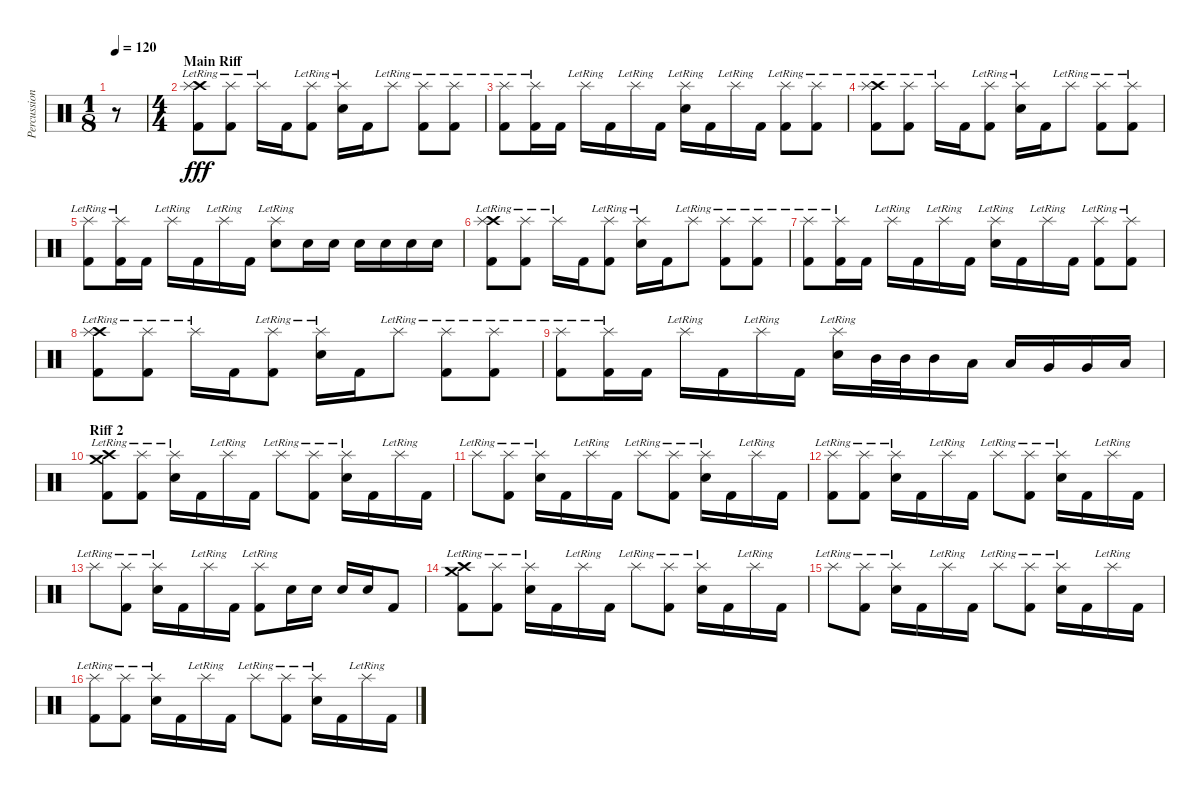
\track ("Percussions" "Percussion") {instrument percussion}
\staff {score}
\articulation defaults
\ts (1 8)
\tempo 120
\clef neutral
\ks c
r.8{dy fff} |
\ts (4 4)
\section ("" "Main Riff")
("Crash high (hit)"{lr} "Splash (hit)"{lr} "Kick (hit) 2").8 ("Splash (hit)"{lr} "Kick (hit) 2").8 "Splash (hit)"{lr}.16 "Kick (hit) 2".16 ("Splash (hit)"{lr} "Kick (hit) 2").8 ("Splash (hit)"{lr} "Electric Snare (hit)").16 "Kick (hit) 2".16 "Splash (hit)"{lr}.8 ("Splash (hit)"{lr} "Kick (hit) 2").8 ("Splash (hit)"{lr} "Kick (hit) 2").8 |
("Splash (hit)"{lr} "Kick (hit) 2").8 ("Splash (hit)"{lr} "Kick (hit) 2").16 "Kick (hit) 2".16 "Splash (hit)"{lr}.16 "Kick (hit) 2".16 "Splash (hit)"{lr}.16 "Kick (hit) 2".16 ("Splash (hit)"{lr} "Electric Snare (hit)").16 "Kick (hit) 2".16 "Splash (hit)"{lr}.16 "Kick (hit) 2".16 ("Splash (hit)"{lr} "Kick (hit) 2").8 ("Splash (hit)"{lr} "Kick (hit) 2").8 |
("Crash high (hit)"{lr} "Splash (hit)"{lr} "Kick (hit) 2").8 ("Splash (hit)"{lr} "Kick (hit) 2").8 "Splash (hit)"{lr}.16 "Kick (hit) 2".16 ("Splash (hit)"{lr} "Kick (hit) 2").8 ("Splash (hit)"{lr} "Electric Snare (hit)").16 "Kick (hit) 2".16 "Splash (hit)"{lr}.8 ("Splash (hit)"{lr} "Kick (hit) 2").8 ("Splash (hit)"{lr} "Kick (hit) 2").8 |
("Splash (hit)"{lr} "Kick (hit) 2").8 ("Splash (hit)"{lr} "Kick (hit) 2").16 "Kick (hit) 2".16 "Splash (hit)"{lr}.16 "Kick (hit) 2".16 "Splash (hit)"{lr}.16 "Kick (hit) 2".16 ("Splash (hit)"{lr} "Electric Snare (hit)").8 "Electric Snare (hit)".16 "Electric Snare (hit)".16 "Electric Snare (hit)".16 "Electric Snare (hit)".16 "Electric Snare (hit)".16 "Electric Snare (hit)".16 |
("Crash high (hit)"{lr} "Splash (hit)"{lr} "Kick (hit) 2").8 ("Splash (hit)"{lr} "Kick (hit) 2").8 "Splash (hit)"{lr}.16 "Kick (hit) 2".16 ("Splash (hit)"{lr} "Kick (hit) 2").8 ("Splash (hit)"{lr} "Electric Snare (hit)").16 "Kick (hit) 2".16 "Splash (hit)"{lr}.8 ("Splash (hit)"{lr} "Kick (hit) 2").8 ("Splash (hit)"{lr} "Kick (hit) 2").8 |
("Splash (hit)"{lr} "Kick (hit) 2").8 ("Splash (hit)"{lr} "Kick (hit) 2").16 "Kick (hit) 2".16 "Splash (hit)"{lr}.16 "Kick (hit) 2".16 "Splash (hit)"{lr}.16 "Kick (hit) 2".16 ("Splash (hit)"{lr} "Electric Snare (hit)").16 "Kick (hit) 2".16 "Splash (hit)"{lr}.16 "Kick (hit) 2".16 ("Splash (hit)"{lr} "Kick (hit) 2").8 ("Splash (hit)"{lr} "Kick (hit) 2").8 |
("Crash high (hit)"{lr} "Splash (hit)"{lr} "Kick (hit) 2").8 ("Splash (hit)"{lr} "Kick (hit) 2").8 "Splash (hit)"{lr}.16 "Kick (hit) 2".16 ("Splash (hit)"{lr} "Kick (hit) 2").8 ("Splash (hit)"{lr} "Electric Snare (hit)").16 "Kick (hit) 2".16 "Splash (hit)"{lr}.8 ("Splash (hit)"{lr} "Kick (hit) 2").8 ("Splash (hit)"{lr} "Kick (hit) 2").8 |
("Splash (hit)"{lr} "Kick (hit) 2").8 ("Splash (hit)"{lr} "Kick (hit) 2").16 "Kick (hit) 2".16 "Splash (hit)"{lr}.16 "Kick (hit) 2".16 "Splash (hit)"{lr}.16 "Kick (hit) 2".16 ("Splash (hit)"{lr} "Electric Snare (hit)").16 "Mid Tom (hit)".32 "Mid Tom (hit)".32 "Mid Tom (hit)".16 "Low Tom (hit)".16 "Low Tom (hit)".16 "Very Low Tom (hit)".16 "Very Low Tom (hit)".16 "Low Floor Tom (hit)".16 |
\section ("" "Riff 2")
("Crash high (hit)"{lr} "Crash medium (hit)"{lr} "Kick (hit) 2").8 ("Splash (hit)"{lr} "Kick (hit) 2").8 ("Splash (hit)"{lr} "Electric Snare (hit)").16 "Kick (hit) 2".16 "Splash (hit)"{lr}.16 "Kick (hit) 2".16 "Splash (hit)"{lr}.8 ("Splash (hit)"{lr} "Kick (hit) 2").8 ("Splash (hit)"{lr} "Electric Snare (hit)").16 "Kick (hit) 2".16 "Splash (hit)"{lr}.16 "Kick (hit) 2".16 |
"Splash (hit)"{lr}.8 ("Splash (hit)"{lr} "Kick (hit) 2").8 ("Splash (hit)"{lr} "Electric Snare (hit)").16 "Kick (hit) 2".16 "Splash (hit)"{lr}.16 "Kick (hit) 2".16 "Splash (hit)"{lr}.8 ("Splash (hit)"{lr} "Kick (hit) 2").8 ("Splash (hit)"{lr} "Electric Snare (hit)").16 "Kick (hit) 2".16 "Splash (hit)"{lr}.16 "Kick (hit) 2".16 |
("Splash (hit)"{lr} "Kick (hit) 2").8 ("Splash (hit)"{lr} "Kick (hit) 2").8 ("Splash (hit)"{lr} "Electric Snare (hit)").16 "Kick (hit) 2".16 "Splash (hit)"{lr}.16 "Kick (hit) 2".16 "Splash (hit)"{lr}.8 ("Splash (hit)"{lr} "Kick (hit) 2").8 ("Splash (hit)"{lr} "Electric Snare (hit)").16 "Kick (hit) 2".16 "Splash (hit)"{lr}.16 "Kick (hit) 2".16 |
"Splash (hit)"{lr}.8 ("Splash (hit)"{lr} "Kick (hit) 2").8 ("Splash (hit)"{lr} "Electric Snare (hit)").16 "Kick (hit) 2".16 "Splash (hit)"{lr}.16 "Kick (hit) 2".16 ("Splash (hit)"{lr} "Kick (hit) 2").8 "Electric Snare (hit)".16 "Electric Snare (hit)".16 "Electric Snare (hit)".16 "Electric Snare (hit)".16 "Kick (hit) 2".8 |
("Crash high (hit)"{lr} "Crash medium (hit)"{lr} "Kick (hit) 2").8 ("Splash (hit)"{lr} "Kick (hit) 2").8 ("Splash (hit)"{lr} "Electric Snare (hit)").16 "Kick (hit) 2".16 "Splash (hit)"{lr}.16 "Kick (hit) 2".16 "Splash (hit)"{lr}.8 ("Splash (hit)"{lr} "Kick (hit) 2").8 ("Splash (hit)"{lr} "Electric Snare (hit)").16 "Kick (hit) 2".16 "Splash (hit)"{lr}.16 "Kick (hit) 2".16 |
"Splash (hit)"{lr}.8 ("Splash (hit)"{lr} "Kick (hit) 2").8 ("Splash (hit)"{lr} "Electric Snare (hit)").16 "Kick (hit) 2".16 "Splash (hit)"{lr}.16 "Kick (hit) 2".16 "Splash (hit)"{lr}.8 ("Splash (hit)"{lr} "Kick (hit) 2").8 ("Splash (hit)"{lr} "Electric Snare (hit)").16 "Kick (hit) 2".16 "Splash (hit)"{lr}.16 "Kick (hit) 2".16 |
("Splash (hit)"{lr} "Kick (hit) 2").8 ("Splash (hit)"{lr} "Kick (hit) 2").8 ("Splash (hit)"{lr} "Electric Snare (hit)").16 "Kick (hit) 2".16 "Splash (hit)"{lr}.16 "Kick (hit) 2".16 "Splash (hit)"{lr}.8 ("Splash (hit)"{lr} "Kick (hit) 2").8 ("Splash (hit)"{lr} "Electric Snare (hit)").16 "Kick (hit) 2".16 "Splash (hit)"{lr}.16 "Kick (hit) 2".16
